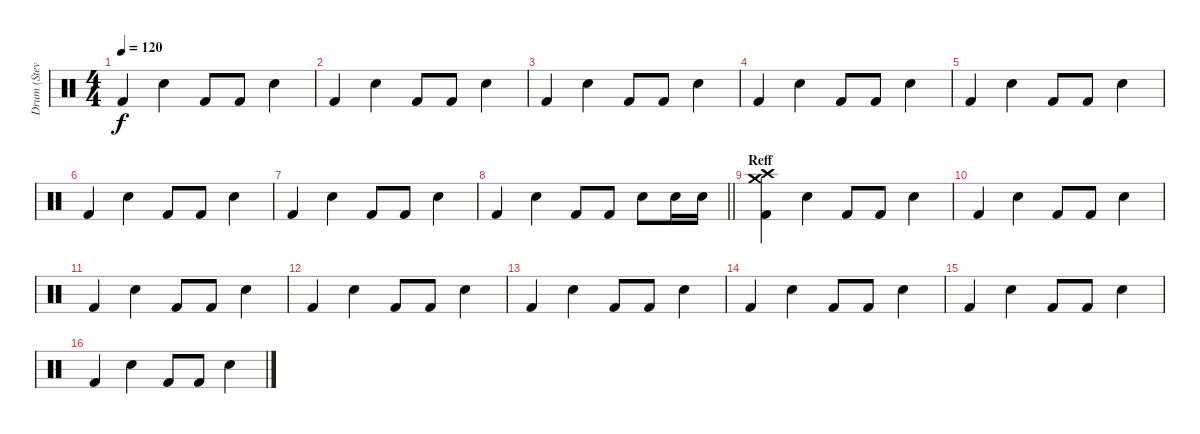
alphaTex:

\track ("Drum (Steven)" "Drum (Stev") {instrument percussion}
\staff {score}
\articulation defaults
\ts (4 4)
\tempo 120
\clef neutral
\ks c "Kick (hit) 2".4{dy f} "Snare (hit) 2".4 "Kick (hit) 2".8 "Kick (hit) 2".8 "Snare (hit) 2".4
|
"Kick (hit) 2".4 "Snare (hit) 2".4 "Kick (hit) 2".8 "Kick (hit) 2".8 "Snare (hit) 2".4 |
"Kick (hit) 2".4 "Snare (hit) 2".4 "Kick (hit) 2".8 "Kick (hit) 2".8 "Snare (hit) 2".4 |
"Kick (hit) 2".4 "Snare (hit) 2".4 "Kick (hit) 2".8 "Kick (hit) 2".8 "Snare (hit) 2".4 |
"Kick (hit) 2".4 "Snare (hit) 2".4 "Kick (hit) 2".8 "Kick (hit) 2".8 "Snare (hit) 2".4 |
"Kick (hit) 2".4 "Snare (hit) 2".4 "Kick (hit) 2".8 "Kick (hit) 2".8 "Snare (hit) 2".4 |
"Kick (hit) 2".4 "Snare (hit) 2".4 "Kick (hit) 2".8 "Kick (hit) 2".8 "Snare (hit) 2".4 |
\barLineRight lightlight "Kick (hit) 2".4 "Snare (hit) 2".4 "Kick (hit) 2".8 "Kick (hit) 2".8 "Snare (hit) 2".8 "Snare (hit) 2".16 "Snare (hit) 2".16
|
\section ("" "Reff")
("Kick (hit) 2" "Crash high (hit)" "Crash medium (hit)").4 "Snare (hit) 2".4 "Kick (hit) 2".8 "Kick (hit) 2".8 "Snare (hit) 2".4 |
"Kick (hit) 2".4 "Snare (hit) 2".4 "Kick (hit) 2".8 "Kick (hit) 2".8 "Snare (hit) 2".4 |
"Kick (hit) 2".4 "Snare (hit) 2".4 "Kick (hit) 2".8 "Kick (hit) 2".8 "Snare (hit) 2".4 |
"Kick (hit) 2".4 "Snare (hit) 2".4 "Kick (hit) 2".8 "Kick (hit) 2".8 "Snare (hit) 2".4 |
"Kick (hit) 2".4 "Snare (hit) 2".4 "Kick (hit) 2".8 "Kick (hit) 2".8 "Snare (hit) 2".4 |
"Kick (hit) 2".4 "Snare (hit) 2".4 "Kick (hit) 2".8 "Kick (hit) 2".8 "Snare (hit) 2".4 |
"Kick (hit) 2".4 "Snare (hit) 2".4 "Kick (hit) 2".8 "Kick (hit) 2".8 "Snare (hit) 2".4 |
"Kick (hit) 2".4 "Snare (hit) 2".4 "Kick (hit) 2".8 "Kick (hit) 2".8 "Snare (hit) 2".4
